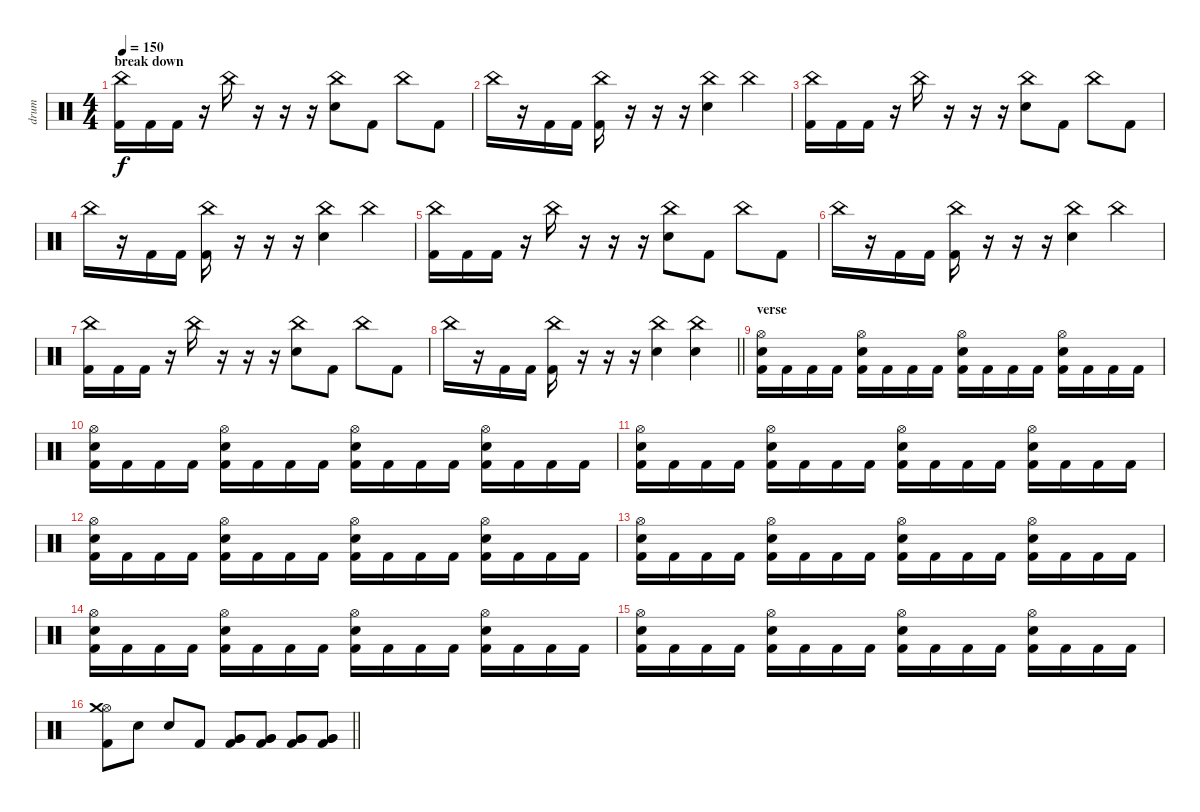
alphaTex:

\track ("drum" "drum") {instrument percussion}
\staff {score}
\articulation defaults
\ts (4 4)
\section ("" "break down")
\tempo 150
\clef neutral
\ks c
("China (hit)" "Kick (hit) 2").16{dy f} "Kick (hit) 2".16 "Kick (hit) 2".16 r.16 "China (hit)".16 r.16 r.16 r.16 ("China (hit)" "Electric Snare (hit)").8 "Kick (hit) 2".8 "China (hit)".8 "Kick (hit) 2".8 |
"China (hit)".16 r.16 "Kick (hit) 2".16 "Kick (hit) 2".16 ("China (hit)" "Kick (hit) 2").16 r.16 r.16 r.16 ("China (hit)" "Electric Snare (hit)").4 "China (hit)".4 |
("China (hit)" "Kick (hit) 2").16 "Kick (hit) 2".16 "Kick (hit) 2".16 r.16 "China (hit)".16 r.16 r.16 r.16 ("China (hit)" "Electric Snare (hit)").8 "Kick (hit) 2".8 "China (hit)".8 "Kick (hit) 2".8 |
"China (hit)".16 r.16 "Kick (hit) 2".16 "Kick (hit) 2".16 ("China (hit)" "Kick (hit) 2").16 r.16 r.16 r.16 ("China (hit)" "Electric Snare (hit)").4 "China (hit)".4 |
("China (hit)" "Kick (hit) 2").16 "Kick (hit) 2".16 "Kick (hit) 2".16 r.16 "China (hit)".16 r.16 r.16 r.16 ("China (hit)" "Electric Snare (hit)").8 "Kick (hit) 2".8 "China (hit)".8 "Kick (hit) 2".8 |
"China (hit)".16 r.16 "Kick (hit) 2".16 "Kick (hit) 2".16 ("China (hit)" "Kick (hit) 2").16 r.16 r.16 r.16 ("China (hit)" "Electric Snare (hit)").4 "China (hit)".4 |
("China (hit)" "Kick (hit) 2").16 "Kick (hit) 2".16 "Kick (hit) 2".16 r.16 "China (hit)".16 r.16 r.16 r.16 ("China (hit)" "Electric Snare (hit)").8 "Kick (hit) 2".8 "China (hit)".8 "Kick (hit) 2".8 |
\barLineRight lightlight "China (hit)".16
r.16 "Kick (hit) 2".16 "Kick (hit) 2".16 ("China (hit)" "Kick (hit) 2").16 r.16 r.16 r.16 ("China (hit)" "Electric Snare (hit)").4 ("China (hit)" "Electric Snare (hit)").4 |
\section ("" "verse")
("Hi-Hat (open)" "Electric Snare (hit)" "Kick (hit) 2").16 "Kick (hit) 2".16 "Kick (hit) 2".16 "Kick (hit) 2".16 ("Hi-Hat (open)" "Electric Snare (hit)" "Kick (hit) 2").16 "Kick (hit) 2".16 "Kick (hit) 2".16 "Kick (hit) 2".16 ("Hi-Hat (open)" "Electric Snare (hit)" "Kick (hit) 2").16 "Kick (hit) 2".16 "Kick (hit) 2".16 "Kick (hit) 2".16 ("Hi-Hat (open)" "Electric Snare (hit)" "Kick (hit) 2").16 "Kick (hit) 2".16 "Kick (hit) 2".16 "Kick (hit) 2".16 |
("Hi-Hat (open)" "Electric Snare (hit)" "Kick (hit) 2").16 "Kick (hit) 2".16 "Kick (hit) 2".16 "Kick (hit) 2".16 ("Hi-Hat (open)" "Electric Snare (hit)" "Kick (hit) 2").16 "Kick (hit) 2".16 "Kick (hit) 2".16 "Kick (hit) 2".16 ("Hi-Hat (open)" "Electric Snare (hit)" "Kick (hit) 2").16 "Kick (hit) 2".16 "Kick (hit) 2".16 "Kick (hit) 2".16 ("Hi-Hat (open)" "Electric Snare (hit)" "Kick (hit) 2").16 "Kick (hit) 2".16 "Kick (hit) 2".16 "Kick (hit) 2".16 |
("Hi-Hat (open)" "Electric Snare (hit)" "Kick (hit) 2").16 "Kick (hit) 2".16 "Kick (hit) 2".16 "Kick (hit) 2".16 ("Hi-Hat (open)" "Electric Snare (hit)" "Kick (hit) 2").16 "Kick (hit) 2".16 "Kick (hit) 2".16 "Kick (hit) 2".16 ("Hi-Hat (open)" "Electric Snare (hit)" "Kick (hit) 2").16 "Kick (hit) 2".16 "Kick (hit) 2".16 "Kick (hit) 2".16 ("Hi-Hat (open)" "Electric Snare (hit)" "Kick (hit) 2").16 "Kick (hit) 2".16 "Kick (hit) 2".16 "Kick (hit) 2".16 |
("Hi-Hat (open)" "Electric Snare (hit)" "Kick (hit) 2").16 "Kick (hit) 2".16 "Kick (hit) 2".16 "Kick (hit) 2".16 ("Hi-Hat (open)" "Electric Snare (hit)" "Kick (hit) 2").16 "Kick (hit) 2".16 "Kick (hit) 2".16 "Kick (hit) 2".16 ("Hi-Hat (open)" "Electric Snare (hit)" "Kick (hit) 2").16 "Kick (hit) 2".16 "Kick (hit) 2".16 "Kick (hit) 2".16 ("Hi-Hat (open)" "Electric Snare (hit)" "Kick (hit) 2").16 "Kick (hit) 2".16 "Kick (hit) 2".16 "Kick (hit) 2".16 |
("Hi-Hat (open)" "Electric Snare (hit)" "Kick (hit) 2").16 "Kick (hit) 2".16 "Kick (hit) 2".16 "Kick (hit) 2".16 ("Hi-Hat (open)" "Electric Snare (hit)" "Kick (hit) 2").16 "Kick (hit) 2".16 "Kick (hit) 2".16 "Kick (hit) 2".16 ("Hi-Hat (open)" "Electric Snare (hit)" "Kick (hit) 2").16 "Kick (hit) 2".16 "Kick (hit) 2".16 "Kick (hit) 2".16 ("Hi-Hat (open)" "Electric Snare (hit)" "Kick (hit) 2").16 "Kick (hit) 2".16 "Kick (hit) 2".16 "Kick (hit) 2".16 |
("Hi-Hat (open)" "Electric Snare (hit)" "Kick (hit) 2").16 "Kick (hit) 2".16 "Kick (hit) 2".16 "Kick (hit) 2".16 ("Hi-Hat (open)" "Electric Snare (hit)" "Kick (hit) 2").16 "Kick (hit) 2".16 "Kick (hit) 2".16 "Kick (hit) 2".16 ("Hi-Hat (open)" "Electric Snare (hit)" "Kick (hit) 2").16 "Kick (hit) 2".16 "Kick (hit) 2".16 "Kick (hit) 2".16 ("Hi-Hat (open)" "Electric Snare (hit)" "Kick (hit) 2").16 "Kick (hit) 2".16 "Kick (hit) 2".16 "Kick (hit) 2".16 |
("Hi-Hat (open)" "Electric Snare (hit)" "Kick (hit) 2").16 "Kick (hit) 2".16 "Kick (hit) 2".16 "Kick (hit) 2".16 ("Hi-Hat (open)" "Electric Snare (hit)" "Kick (hit) 2").16 "Kick (hit) 2".16 "Kick (hit) 2".16 "Kick (hit) 2".16 ("Hi-Hat (open)" "Electric Snare (hit)" "Kick (hit) 2").16 "Kick (hit) 2".16 "Kick (hit) 2".16 "Kick (hit) 2".16 ("Hi-Hat (open)" "Electric Snare (hit)" "Kick (hit) 2").16 "Kick (hit) 2".16 "Kick (hit) 2".16 "Kick (hit) 2".16 |
\barLineRight lightlight
("Hi-Hat (open)" "Crash medium (hit)" "Kick (hit) 2").8 "Electric Snare (hit)".8 "Electric Snare (hit)".8 "Kick (hit) 2".8 ("Very Low Tom (hit)" "Very Low Tom (hit)" "Kick (hit) 2").8 ("Very Low Tom (hit)" "Very Low Tom (hit)" "Kick (hit) 2").8 ("Very Low Tom (hit)" "Very Low Tom (hit)" "Kick (hit) 2").8 ("Very Low Tom (hit)" "Very Low Tom (hit)" "Kick (hit) 2").8
